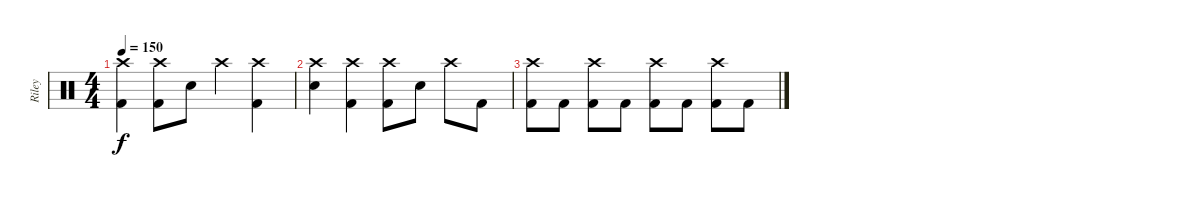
\track ("Riley" "Riley") {instrument percussion}
\staff {score}
\articulation defaults
\ts (4 4)
\tempo 150
\clef neutral
\ks c
("Crash high (hit)" "Kick (hit) 2").4{dy f} ("Crash high (hit)" "Kick (hit) 2").8 "Electric Snare (hit)".8 "Crash high (hit)".4 ("Crash high (hit)" "Kick (hit) 2").4 |
("Crash high (hit)" "Electric Snare (hit)").4 ("Crash high (hit)" "Kick (hit) 2").4 ("Crash high (hit)" "Kick (hit) 2").8 "Electric Snare (hit)".8 "Crash high (hit)".8 "Kick (hit) 2".8 |
("Crash high (hit)" "Kick (hit) 2").8 "Kick (hit) 2".8 ("Crash high (hit)" "Kick (hit) 2").8 "Kick (hit) 2".8 ("Crash high (hit)" "Kick (hit) 2").8 "Kick (hit) 2".8 ("Crash high (hit)" "Kick (hit) 2").8 "Kick (hit) 2".8
